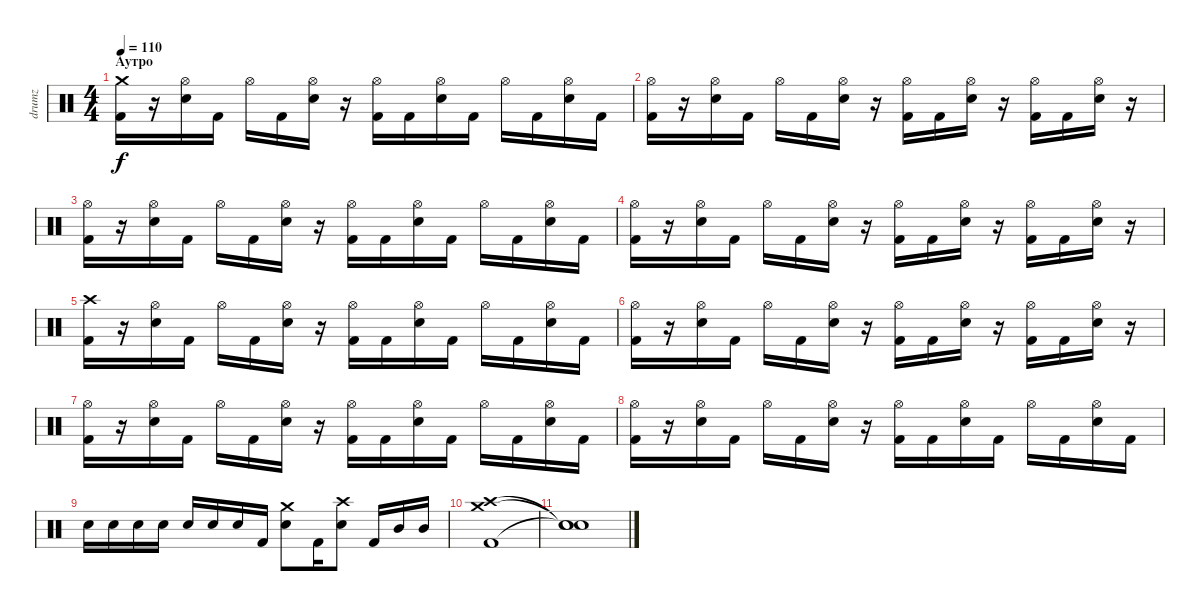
\track ("drumz" "drumz") {instrument percussion}
\staff {score}
\articulation defaults
\ts (4 4)
\section ("" "Аутро")
\tempo 110
\clef neutral
\ks c
("Crash medium (hit)" "Kick (hit) 2").16{dy f} r.16 ("Hi-Hat (open)" "Electric Snare (hit)").16 "Kick (hit) 2".16 "Hi-Hat (open)".16 "Kick (hit) 2".16 ("Hi-Hat (open)" "Electric Snare (hit)").16 r.16 ("Hi-Hat (open)" "Kick (hit) 2").16 "Kick (hit) 2".16 ("Hi-Hat (open)" "Electric Snare (hit)").16 "Kick (hit) 2".16 "Hi-Hat (open)".16 "Kick (hit) 2".16 ("Hi-Hat (open)" "Electric Snare (hit)").16 "Kick (hit) 2".16 |
("Hi-Hat (open)" "Kick (hit) 2").16 r.16 ("Hi-Hat (open)" "Electric Snare (hit)").16 "Kick (hit) 2".16 "Hi-Hat (open)".16 "Kick (hit) 2".16 ("Hi-Hat (open)" "Electric Snare (hit)").16 r.16 ("Hi-Hat (open)" "Kick (hit) 2").16 "Kick (hit) 2".16 ("Hi-Hat (open)" "Electric Snare (hit)").16 r.16 ("Hi-Hat (open)" "Kick (hit) 2").16 "Kick (hit) 2".16 ("Hi-Hat (open)" "Electric Snare (hit)").16 r.16 |
("Hi-Hat (open)" "Kick (hit) 2").16 r.16 ("Hi-Hat (open)" "Electric Snare (hit)").16 "Kick (hit) 2".16 "Hi-Hat (open)".16 "Kick (hit) 2".16 ("Hi-Hat (open)" "Electric Snare (hit)").16 r.16 ("Hi-Hat (open)" "Kick (hit) 2").16 "Kick (hit) 2".16 ("Hi-Hat (open)" "Electric Snare (hit)").16 "Kick (hit) 2".16 "Hi-Hat (open)".16 "Kick (hit) 2".16 ("Hi-Hat (open)" "Electric Snare (hit)").16 "Kick (hit) 2".16 |
("Hi-Hat (open)" "Kick (hit) 2").16 r.16 ("Hi-Hat (open)" "Electric Snare (hit)").16 "Kick (hit) 2".16 "Hi-Hat (open)".16 "Kick (hit) 2".16 ("Hi-Hat (open)" "Electric Snare (hit)").16 r.16 ("Hi-Hat (open)" "Kick (hit) 2").16 "Kick (hit) 2".16 ("Hi-Hat (open)" "Electric Snare (hit)").16 r.16 ("Hi-Hat (open)" "Kick (hit) 2").16 "Kick (hit) 2".16 ("Hi-Hat (open)" "Electric Snare (hit)").16 r.16 |
("Crash high (hit)" "Kick (hit) 2").16 r.16 ("Hi-Hat (open)" "Electric Snare (hit)").16 "Kick (hit) 2".16 "Hi-Hat (open)".16 "Kick (hit) 2".16 ("Hi-Hat (open)" "Electric Snare (hit)").16 r.16 ("Hi-Hat (open)" "Kick (hit) 2").16 "Kick (hit) 2".16 ("Hi-Hat (open)" "Electric Snare (hit)").16 "Kick (hit) 2".16 "Hi-Hat (open)".16 "Kick (hit) 2".16 ("Hi-Hat (open)" "Electric Snare (hit)").16 "Kick (hit) 2".16 |
("Hi-Hat (open)" "Kick (hit) 2").16 r.16 ("Hi-Hat (open)" "Electric Snare (hit)").16 "Kick (hit) 2".16 "Hi-Hat (open)".16 "Kick (hit) 2".16 ("Hi-Hat (open)" "Electric Snare (hit)").16 r.16 ("Hi-Hat (open)" "Kick (hit) 2").16 "Kick (hit) 2".16 ("Hi-Hat (open)" "Electric Snare (hit)").16 r.16 ("Hi-Hat (open)" "Kick (hit) 2").16 "Kick (hit) 2".16 ("Hi-Hat (open)" "Electric Snare (hit)").16 r.16 |
("Hi-Hat (open)" "Kick (hit) 2").16 r.16 ("Hi-Hat (open)" "Electric Snare (hit)").16 "Kick (hit) 2".16 "Hi-Hat (open)".16 "Kick (hit) 2".16 ("Hi-Hat (open)" "Electric Snare (hit)").16 r.16 ("Hi-Hat (open)" "Kick (hit) 2").16 "Kick (hit) 2".16 ("Hi-Hat (open)" "Electric Snare (hit)").16 "Kick (hit) 2".16 "Hi-Hat (open)".16 "Kick (hit) 2".16 ("Hi-Hat (open)" "Electric Snare (hit)").16 "Kick (hit) 2".16 |
("Hi-Hat (open)" "Kick (hit) 2").16 r.16 ("Hi-Hat (open)" "Electric Snare (hit)").16 "Kick (hit) 2".16 "Hi-Hat (open)".16 "Kick (hit) 2".16 ("Hi-Hat (open)" "Electric Snare (hit)").16 r.16 ("Hi-Hat (open)" "Kick (hit) 2").16 "Kick (hit) 2".16 ("Hi-Hat (open)" "Electric Snare (hit)").16 "Kick (hit) 2".16 "Hi-Hat (open)".16 "Kick (hit) 2".16 ("Hi-Hat (open)" "Electric Snare (hit)").16 "Kick (hit) 2".16 |
"Electric Snare (hit)".16 "Electric Snare (hit)".16 "Electric Snare (hit)".16 "Electric Snare (hit)".16 "Electric Snare (hit)".16 "Electric Snare (hit)".16 "Electric Snare (hit)".16 "Kick (hit) 2".16 ("Crash medium (hit)" "Electric Snare (hit)").8 "Kick (hit) 2".16 ("Crash high (hit)" "Electric Snare (hit)").8 "Kick (hit) 2".16 "Mid Tom (hit)".16 "Mid Tom (hit)".16 |
("Crash medium (hit)" "Crash high (hit)" "Kick (hit) 2").1 |
("Snare (hit)"{t} "Snare (hit)"{t} "Snare (hit)"{t}).1
